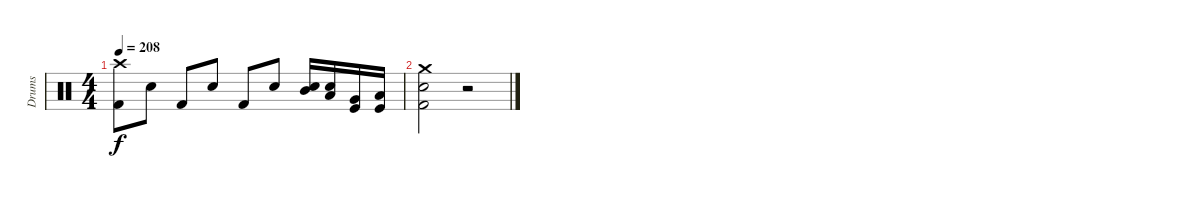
\track ("Drums" "Drums") {instrument percussion}
\staff {score}
\articulation defaults
\ts (4 4)
\tempo 208
\clef neutral
\ks c
("Crash high (hit)" "Kick (hit) 2").8{dy f} "Electric Snare (hit)".8 "Kick (hit) 2".8 "Electric Snare (hit)".8 "Kick (hit) 2".8 "Electric Snare (hit)".8 ("Mid Tom (hit)" "Electric Snare (hit)").16 ("Low Tom (hit)" "Electric Snare (hit)").16 ("Very Low Tom (hit)" "Kick (hit)").16 ("Low Floor Tom (hit)" "Kick (hit)").16 |
("Crash medium (hit)" "Kick (hit) 2" "Electric Snare (hit)").2 r.2
